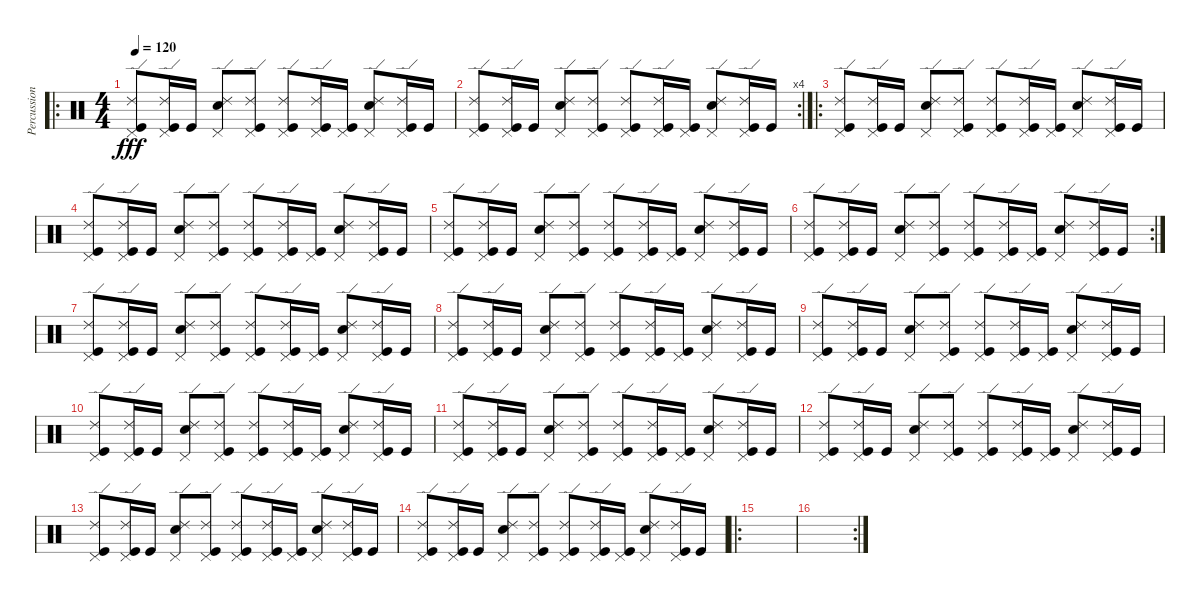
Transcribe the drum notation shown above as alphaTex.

\track ("Percussion" "Percussion") {instrument percussion}
\staff {score}
\articulation defaults
\ro
\ts (4 4)
\tempo 120
\clef neutral
\ks c
("Ride (edge) 2" "Kick (hit)" "Pedal Hi-Hat (hit)").8{dy fff} ("Ride (edge) 2" "Kick (hit)" "Pedal Hi-Hat (hit)").16 "Kick (hit)".16 ("Ride (edge) 2" "Snare (hit) 2" "Pedal Hi-Hat (hit)").8 ("Ride (edge) 2" "Kick (hit)" "Pedal Hi-Hat (hit)").8 ("Ride (edge) 2" "Kick (hit)" "Pedal Hi-Hat (hit)").8 ("Ride (edge) 2" "Kick (hit)" "Pedal Hi-Hat (hit)").16 ("Kick (hit)" "Pedal Hi-Hat (hit)").16 ("Ride (edge) 2" "Snare (hit) 2" "Pedal Hi-Hat (hit)").8 ("Ride (edge) 2" "Kick (hit)" "Pedal Hi-Hat (hit)").16 "Kick (hit)".16 |
\rc 4
("Ride (edge) 2" "Kick (hit)" "Pedal Hi-Hat (hit)").8 ("Ride (edge) 2" "Kick (hit)" "Pedal Hi-Hat (hit)").16 "Kick (hit)".16 ("Ride (edge) 2" "Snare (hit) 2" "Pedal Hi-Hat (hit)").8 ("Ride (edge) 2" "Kick (hit)" "Pedal Hi-Hat (hit)").8 ("Ride (edge) 2" "Kick (hit)" "Pedal Hi-Hat (hit)").8 ("Ride (edge) 2" "Kick (hit)" "Pedal Hi-Hat (hit)").16 ("Kick (hit)" "Pedal Hi-Hat (hit)").16 ("Ride (edge) 2" "Snare (hit) 2" "Pedal Hi-Hat (hit)").8 ("Ride (edge) 2" "Kick (hit)" "Pedal Hi-Hat (hit)").16 "Kick (hit)".16 |
\ro
("Ride (edge) 2" "Kick (hit)" "Pedal Hi-Hat (hit)").8 ("Ride (edge) 2" "Kick (hit)" "Pedal Hi-Hat (hit)").16 "Kick (hit)".16 ("Ride (edge) 2" "Snare (hit) 2" "Pedal Hi-Hat (hit)").8 ("Ride (edge) 2" "Kick (hit)" "Pedal Hi-Hat (hit)").8 ("Ride (edge) 2" "Kick (hit)" "Pedal Hi-Hat (hit)").8 ("Ride (edge) 2" "Kick (hit)" "Pedal Hi-Hat (hit)").16 ("Kick (hit)" "Pedal Hi-Hat (hit)").16 ("Ride (edge) 2" "Snare (hit) 2" "Pedal Hi-Hat (hit)").8 ("Ride (edge) 2" "Kick (hit)" "Pedal Hi-Hat (hit)").16 "Kick (hit)".16 |
("Ride (edge) 2" "Kick (hit)" "Pedal Hi-Hat (hit)").8 ("Ride (edge) 2" "Kick (hit)" "Pedal Hi-Hat (hit)").16 "Kick (hit)".16 ("Ride (edge) 2" "Snare (hit) 2" "Pedal Hi-Hat (hit)").8 ("Ride (edge) 2" "Kick (hit)" "Pedal Hi-Hat (hit)").8 ("Ride (edge) 2" "Kick (hit)" "Pedal Hi-Hat (hit)").8 ("Ride (edge) 2" "Kick (hit)" "Pedal Hi-Hat (hit)").16 ("Kick (hit)" "Pedal Hi-Hat (hit)").16 ("Ride (edge) 2" "Snare (hit) 2" "Pedal Hi-Hat (hit)").8 ("Ride (edge) 2" "Kick (hit)" "Pedal Hi-Hat (hit)").16 "Kick (hit)".16 |
("Ride (edge) 2" "Kick (hit)" "Pedal Hi-Hat (hit)").8 ("Ride (edge) 2" "Kick (hit)" "Pedal Hi-Hat (hit)").16 "Kick (hit)".16 ("Ride (edge) 2" "Snare (hit) 2" "Pedal Hi-Hat (hit)").8 ("Ride (edge) 2" "Kick (hit)" "Pedal Hi-Hat (hit)").8 ("Ride (edge) 2" "Kick (hit)" "Pedal Hi-Hat (hit)").8 ("Ride (edge) 2" "Kick (hit)" "Pedal Hi-Hat (hit)").16 ("Kick (hit)" "Pedal Hi-Hat (hit)").16 ("Ride (edge) 2" "Snare (hit) 2" "Pedal Hi-Hat (hit)").8 ("Ride (edge) 2" "Kick (hit)" "Pedal Hi-Hat (hit)").16 "Kick (hit)".16 |
\rc 2
("Ride (edge) 2" "Kick (hit)" "Pedal Hi-Hat (hit)").8 ("Ride (edge) 2" "Kick (hit)" "Pedal Hi-Hat (hit)").16 "Kick (hit)".16 ("Ride (edge) 2" "Snare (hit) 2" "Pedal Hi-Hat (hit)").8 ("Ride (edge) 2" "Kick (hit)" "Pedal Hi-Hat (hit)").8 ("Ride (edge) 2" "Kick (hit)" "Pedal Hi-Hat (hit)").8 ("Ride (edge) 2" "Kick (hit)" "Pedal Hi-Hat (hit)").16 ("Kick (hit)" "Pedal Hi-Hat (hit)").16 ("Ride (edge) 2" "Snare (hit) 2" "Pedal Hi-Hat (hit)").8 ("Ride (edge) 2" "Kick (hit)" "Pedal Hi-Hat (hit)").16 "Kick (hit)".16 |
("Ride (edge) 2" "Kick (hit)" "Pedal Hi-Hat (hit)").8 ("Ride (edge) 2" "Kick (hit)" "Pedal Hi-Hat (hit)").16 "Kick (hit)".16 ("Ride (edge) 2" "Snare (hit) 2" "Pedal Hi-Hat (hit)").8 ("Ride (edge) 2" "Kick (hit)" "Pedal Hi-Hat (hit)").8 ("Ride (edge) 2" "Kick (hit)" "Pedal Hi-Hat (hit)").8 ("Ride (edge) 2" "Kick (hit)" "Pedal Hi-Hat (hit)").16 ("Kick (hit)" "Pedal Hi-Hat (hit)").16 ("Ride (edge) 2" "Snare (hit) 2" "Pedal Hi-Hat (hit)").8 ("Ride (edge) 2" "Kick (hit)" "Pedal Hi-Hat (hit)").16 "Kick (hit)".16 |
("Ride (edge) 2" "Kick (hit)" "Pedal Hi-Hat (hit)").8 ("Ride (edge) 2" "Kick (hit)" "Pedal Hi-Hat (hit)").16 "Kick (hit)".16 ("Ride (edge) 2" "Snare (hit) 2" "Pedal Hi-Hat (hit)").8 ("Ride (edge) 2" "Kick (hit)" "Pedal Hi-Hat (hit)").8 ("Ride (edge) 2" "Kick (hit)" "Pedal Hi-Hat (hit)").8 ("Ride (edge) 2" "Kick (hit)" "Pedal Hi-Hat (hit)").16 ("Kick (hit)" "Pedal Hi-Hat (hit)").16 ("Ride (edge) 2" "Snare (hit) 2" "Pedal Hi-Hat (hit)").8 ("Ride (edge) 2" "Kick (hit)" "Pedal Hi-Hat (hit)").16 "Kick (hit)".16 |
("Ride (edge) 2" "Kick (hit)" "Pedal Hi-Hat (hit)").8 ("Ride (edge) 2" "Kick (hit)" "Pedal Hi-Hat (hit)").16 "Kick (hit)".16 ("Ride (edge) 2" "Snare (hit) 2" "Pedal Hi-Hat (hit)").8 ("Ride (edge) 2" "Kick (hit)" "Pedal Hi-Hat (hit)").8 ("Ride (edge) 2" "Kick (hit)" "Pedal Hi-Hat (hit)").8 ("Ride (edge) 2" "Kick (hit)" "Pedal Hi-Hat (hit)").16 ("Kick (hit)" "Pedal Hi-Hat (hit)").16 ("Ride (edge) 2" "Snare (hit) 2" "Pedal Hi-Hat (hit)").8 ("Ride (edge) 2" "Kick (hit)" "Pedal Hi-Hat (hit)").16 "Kick (hit)".16 |
("Ride (edge) 2" "Kick (hit)" "Pedal Hi-Hat (hit)").8 ("Ride (edge) 2" "Kick (hit)" "Pedal Hi-Hat (hit)").16 "Kick (hit)".16 ("Ride (edge) 2" "Snare (hit) 2" "Pedal Hi-Hat (hit)").8 ("Ride (edge) 2" "Kick (hit)" "Pedal Hi-Hat (hit)").8 ("Ride (edge) 2" "Kick (hit)" "Pedal Hi-Hat (hit)").8 ("Ride (edge) 2" "Kick (hit)" "Pedal Hi-Hat (hit)").16 ("Kick (hit)" "Pedal Hi-Hat (hit)").16 ("Ride (edge) 2" "Snare (hit) 2" "Pedal Hi-Hat (hit)").8 ("Ride (edge) 2" "Kick (hit)" "Pedal Hi-Hat (hit)").16 "Kick (hit)".16 |
("Ride (edge) 2" "Kick (hit)" "Pedal Hi-Hat (hit)").8 ("Ride (edge) 2" "Kick (hit)" "Pedal Hi-Hat (hit)").16 "Kick (hit)".16 ("Ride (edge) 2" "Snare (hit) 2" "Pedal Hi-Hat (hit)").8 ("Ride (edge) 2" "Kick (hit)" "Pedal Hi-Hat (hit)").8 ("Ride (edge) 2" "Kick (hit)" "Pedal Hi-Hat (hit)").8 ("Ride (edge) 2" "Kick (hit)" "Pedal Hi-Hat (hit)").16 ("Kick (hit)" "Pedal Hi-Hat (hit)").16 ("Ride (edge) 2" "Snare (hit) 2" "Pedal Hi-Hat (hit)").8 ("Ride (edge) 2" "Kick (hit)" "Pedal Hi-Hat (hit)").16 "Kick (hit)".16 |
("Ride (edge) 2" "Kick (hit)" "Pedal Hi-Hat (hit)").8 ("Ride (edge) 2" "Kick (hit)" "Pedal Hi-Hat (hit)").16 "Kick (hit)".16 ("Ride (edge) 2" "Snare (hit) 2" "Pedal Hi-Hat (hit)").8 ("Ride (edge) 2" "Kick (hit)" "Pedal Hi-Hat (hit)").8 ("Ride (edge) 2" "Kick (hit)" "Pedal Hi-Hat (hit)").8 ("Ride (edge) 2" "Kick (hit)" "Pedal Hi-Hat (hit)").16 ("Kick (hit)" "Pedal Hi-Hat (hit)").16 ("Ride (edge) 2" "Snare (hit) 2" "Pedal Hi-Hat (hit)").8 ("Ride (edge) 2" "Kick (hit)" "Pedal Hi-Hat (hit)").16 "Kick (hit)".16 |
("Ride (edge) 2" "Kick (hit)" "Pedal Hi-Hat (hit)").8 ("Ride (edge) 2" "Kick (hit)" "Pedal Hi-Hat (hit)").16 "Kick (hit)".16 ("Ride (edge) 2" "Snare (hit) 2" "Pedal Hi-Hat (hit)").8 ("Ride (edge) 2" "Kick (hit)" "Pedal Hi-Hat (hit)").8 ("Ride (edge) 2" "Kick (hit)" "Pedal Hi-Hat (hit)").8 ("Ride (edge) 2" "Kick (hit)" "Pedal Hi-Hat (hit)").16 ("Kick (hit)" "Pedal Hi-Hat (hit)").16 ("Ride (edge) 2" "Snare (hit) 2" "Pedal Hi-Hat (hit)").8 ("Ride (edge) 2" "Kick (hit)" "Pedal Hi-Hat (hit)").16 "Kick (hit)".16 |
("Ride (edge) 2" "Kick (hit)" "Pedal Hi-Hat (hit)").8 ("Ride (edge) 2" "Kick (hit)" "Pedal Hi-Hat (hit)").16 "Kick (hit)".16 ("Ride (edge) 2" "Snare (hit) 2" "Pedal Hi-Hat (hit)").8 ("Ride (edge) 2" "Kick (hit)" "Pedal Hi-Hat (hit)").8 ("Ride (edge) 2" "Kick (hit)" "Pedal Hi-Hat (hit)").8 ("Ride (edge) 2" "Kick (hit)" "Pedal Hi-Hat (hit)").16 ("Kick (hit)" "Pedal Hi-Hat (hit)").16 ("Ride (edge) 2" "Snare (hit) 2" "Pedal Hi-Hat (hit)").8 ("Ride (edge) 2" "Kick (hit)" "Pedal Hi-Hat (hit)").16 "Kick (hit)".16 |
\ro
|
\rc 2
